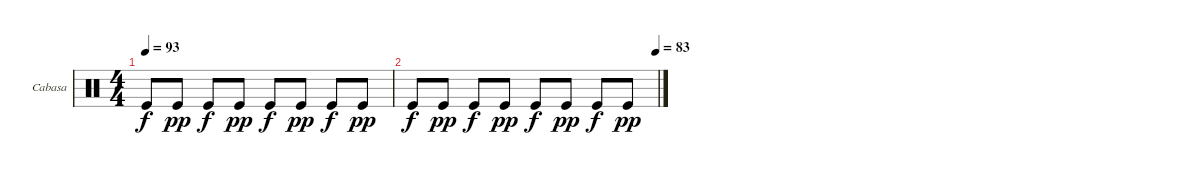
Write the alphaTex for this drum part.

\defaultSystemsLayout 4
\bracketExtendMode groupsimilarinstruments
\firstSystemTrackNameOrientation horizontal
\otherSystemsTrackNameOrientation horizontal
\track ("Cabasa" "Cabasa") {instrument percussion}
\staff {score}
\articulation defaults
\ts (4 4)
\tempo 93
\clef neutral
\ks c "Kick (hit)".8{dy f} "Kick (hit)".8{dy pp} "Kick (hit)".8{dy f} "Kick (hit)".8{dy pp} "Kick (hit)".8{dy f} "Kick (hit)".8{dy pp} "Kick (hit)".8{dy f} "Kick (hit)".8{dy pp}
|
\tempo (83 0.99375)
"Kick (hit)".8{dy f} "Kick (hit)".8{dy pp} "Kick (hit)".8{dy f} "Kick (hit)".8{dy pp} "Kick (hit)".8{dy f} "Kick (hit)".8{dy pp} "Kick (hit)".8{dy f} "Kick (hit)".8{dy pp}
